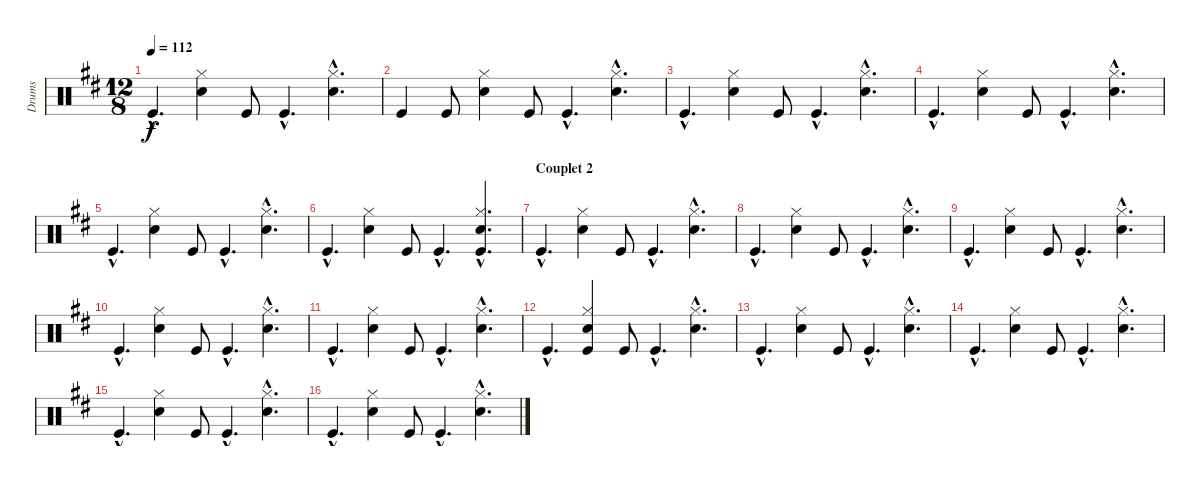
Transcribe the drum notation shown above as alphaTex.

\track ("Drums" "Drums") {instrument percussion}
\staff {score}
\articulation defaults
\ts (12 8)
\tempo 112
\clef neutral
\ks d "Kick (hit)"{hac}.4{d dy f}
("Hi-Hat (closed)" "Electric Snare (hit)").4 "Kick (hit)".8 "Kick (hit)"{hac}.4{d} ("Hi-Hat (closed)"{hac} "Electric Snare (hit)"{hac}).4{d} |
"Kick (hit)".4 "Kick (hit)".8 ("Hi-Hat (closed)" "Electric Snare (hit)").4 "Kick (hit)".8 "Kick (hit)"{hac}.4{d} ("Hi-Hat (closed)"{hac} "Electric Snare (hit)"{hac}).4{d} |
"Kick (hit)"{hac}.4{d} ("Hi-Hat (closed)" "Electric Snare (hit)").4 "Kick (hit)".8 "Kick (hit)"{hac}.4{d} ("Hi-Hat (closed)"{hac} "Electric Snare (hit)"{hac}).4{d} |
"Kick (hit)"{hac}.4{d} ("Hi-Hat (closed)" "Electric Snare (hit)").4 "Kick (hit)".8 "Kick (hit)"{hac}.4{d} ("Hi-Hat (closed)"{hac} "Electric Snare (hit)"{hac}).4{d} |
"Kick (hit)"{hac}.4{d} ("Hi-Hat (closed)" "Electric Snare (hit)").4 "Kick (hit)".8 "Kick (hit)"{hac}.4{d} ("Hi-Hat (closed)"{hac} "Electric Snare (hit)"{hac}).4{d} |
"Kick (hit)"{hac}.4{d} ("Hi-Hat (closed)" "Electric Snare (hit)").4 "Kick (hit)".8 "Kick (hit)"{hac}.4{d} ("Hi-Hat (closed)"{hac} "Electric Snare (hit)"{hac} "Kick (hit)"{hac}).4{d} |
\section ("" "Couplet 2")
"Kick (hit)"{hac}.4{d} ("Hi-Hat (closed)" "Electric Snare (hit)").4 "Kick (hit)".8 "Kick (hit)"{hac}.4{d} ("Hi-Hat (closed)"{hac} "Electric Snare (hit)"{hac}).4{d} |
"Kick (hit)"{hac}.4{d} ("Hi-Hat (closed)" "Electric Snare (hit)").4 "Kick (hit)".8 "Kick (hit)"{hac}.4{d} ("Hi-Hat (closed)"{hac} "Electric Snare (hit)"{hac}).4{d} |
"Kick (hit)"{hac}.4{d} ("Hi-Hat (closed)" "Electric Snare (hit)").4 "Kick (hit)".8 "Kick (hit)"{hac}.4{d} ("Hi-Hat (closed)"{hac} "Electric Snare (hit)"{hac}).4{d} |
"Kick (hit)"{hac}.4{d} ("Hi-Hat (closed)" "Electric Snare (hit)").4 "Kick (hit)".8 "Kick (hit)"{hac}.4{d} ("Hi-Hat (closed)"{hac} "Electric Snare (hit)"{hac}).4{d} |
"Kick (hit)"{hac}.4{d} ("Hi-Hat (closed)" "Electric Snare (hit)").4 "Kick (hit)".8 "Kick (hit)"{hac}.4{d} ("Hi-Hat (closed)"{hac} "Electric Snare (hit)"{hac}).4{d} |
"Kick (hit)"{hac}.4{d} ("Hi-Hat (closed)" "Electric Snare (hit)" "Kick (hit)").4 "Kick (hit)".8 "Kick (hit)"{hac}.4{d} ("Hi-Hat (closed)"{hac} "Electric Snare (hit)"{hac}).4{d} |
"Kick (hit)"{hac}.4{d} ("Hi-Hat (closed)" "Electric Snare (hit)").4 "Kick (hit)".8 "Kick (hit)"{hac}.4{d} ("Hi-Hat (closed)"{hac} "Electric Snare (hit)"{hac}).4{d} |
"Kick (hit)"{hac}.4{d} ("Hi-Hat (closed)" "Electric Snare (hit)").4 "Kick (hit)".8 "Kick (hit)"{hac}.4{d} ("Hi-Hat (closed)"{hac} "Electric Snare (hit)"{hac}).4{d} |
"Kick (hit)"{hac}.4{d} ("Hi-Hat (closed)" "Electric Snare (hit)").4 "Kick (hit)".8 "Kick (hit)"{hac}.4{d} ("Hi-Hat (closed)"{hac} "Electric Snare (hit)"{hac}).4{d} |
"Kick (hit)"{hac}.4{d} ("Hi-Hat (closed)" "Electric Snare (hit)").4 "Kick (hit)".8 "Kick (hit)"{hac}.4{d} ("Hi-Hat (closed)"{hac} "Electric Snare (hit)"{hac}).4{d}
